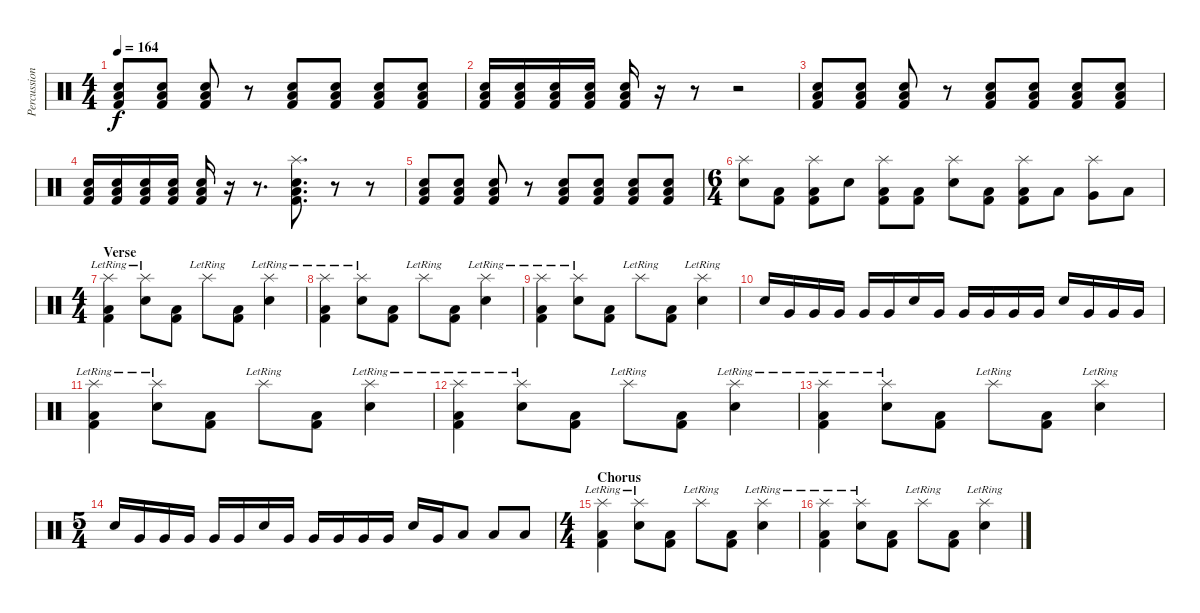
\track ("Percussion" "Percussion") {instrument percussion}
\staff {score}
\articulation defaults
\ts (4 4)
\tempo 164
\clef neutral
\ks c
("Snare (hit) 2" "Low Floor Tom (hit)" "Kick (hit) 2").8{dy f} ("Snare (hit) 2" "Low Floor Tom (hit)" "Kick (hit) 2").8 ("Snare (hit) 2" "Low Floor Tom (hit)" "Kick (hit) 2").8 r.8 ("Snare (hit) 2" "Low Floor Tom (hit)" "Kick (hit) 2").8 ("Snare (hit) 2" "Low Floor Tom (hit)" "Kick (hit) 2").8 ("Snare (hit) 2" "Low Floor Tom (hit)" "Kick (hit) 2").8 ("Snare (hit) 2" "Low Floor Tom (hit)" "Kick (hit) 2").8 |
("Snare (hit) 2" "Low Floor Tom (hit)" "Kick (hit) 2").16 ("Snare (hit) 2" "Low Floor Tom (hit)" "Kick (hit) 2").16 ("Snare (hit) 2" "Low Floor Tom (hit)" "Kick (hit) 2").16 ("Snare (hit) 2" "Low Floor Tom (hit)" "Kick (hit) 2").16 ("Snare (hit) 2" "Low Floor Tom (hit)" "Kick (hit) 2").16 r.16 r.8 r.2 |
("Snare (hit) 2" "Low Floor Tom (hit)" "Kick (hit) 2").8 ("Snare (hit) 2" "Low Floor Tom (hit)" "Kick (hit) 2").8 ("Snare (hit) 2" "Low Floor Tom (hit)" "Kick (hit) 2").8 r.8 ("Snare (hit) 2" "Low Floor Tom (hit)" "Kick (hit) 2").8 ("Snare (hit) 2" "Low Floor Tom (hit)" "Kick (hit) 2").8 ("Snare (hit) 2" "Low Floor Tom (hit)" "Kick (hit) 2").8 ("Snare (hit) 2" "Low Floor Tom (hit)" "Kick (hit) 2").8 |
("Snare (hit) 2" "Low Floor Tom (hit)" "Kick (hit) 2").16 ("Snare (hit) 2" "Low Floor Tom (hit)" "Kick (hit) 2").16 ("Snare (hit) 2" "Low Floor Tom (hit)" "Kick (hit) 2").16 ("Snare (hit) 2" "Low Floor Tom (hit)" "Kick (hit) 2").16 ("Snare (hit) 2" "Low Floor Tom (hit)" "Kick (hit) 2").16 r.16 r.8{d} ("Splash (hit)" "Snare (hit) 2" "Low Floor Tom (hit)" "Kick (hit) 2").8{d} r.8 r.8 |
("Snare (hit) 2" "Low Floor Tom (hit)" "Kick (hit) 2").8 ("Snare (hit) 2" "Low Floor Tom (hit)" "Kick (hit) 2").8 ("Snare (hit) 2" "Low Floor Tom (hit)" "Kick (hit) 2").8 r.8 ("Snare (hit) 2" "Low Floor Tom (hit)" "Kick (hit) 2").8 ("Snare (hit) 2" "Low Floor Tom (hit)" "Kick (hit) 2").8 ("Snare (hit) 2" "Low Floor Tom (hit)" "Kick (hit) 2").8 ("Snare (hit) 2" "Low Floor Tom (hit)" "Kick (hit) 2").8 |
\ts (6 4)
("Splash (hit)" "Snare (hit) 2").8 ("Low Floor Tom (hit)" "Kick (hit) 2").8 ("Splash (hit)" "Low Floor Tom (hit)" "Kick (hit) 2").8 "Snare (hit) 2".8 ("Splash (hit)" "Low Floor Tom (hit)" "Kick (hit) 2").8 ("Low Floor Tom (hit)" "Kick (hit) 2").8 ("Splash (hit)" "Snare (hit) 2").8 ("Low Floor Tom (hit)" "Kick (hit) 2").8 ("Splash (hit)" "Low Floor Tom (hit)" "Kick (hit) 2").8 "Low Tom (hit)".8 ("Splash (hit)" "Very Low Tom (hit)").8 "Low Floor Tom (hit)".8 |
\ts (4 4)
\section ("" "Verse")
("Splash (hit)"{lr} "Low Floor Tom (hit)" "Kick (hit) 2").4 ("Splash (hit)"{lr} "Snare (hit) 2").8 ("Low Floor Tom (hit)" "Kick (hit) 2").8 "Splash (hit)"{lr}.8 ("Low Floor Tom (hit)" "Kick (hit) 2").8 ("Splash (hit)"{lr} "Snare (hit) 2").4 |
("Splash (hit)"{lr} "Low Floor Tom (hit)" "Kick (hit) 2").4 ("Splash (hit)"{lr} "Snare (hit) 2").8 ("Low Floor Tom (hit)" "Kick (hit) 2").8 "Splash (hit)"{lr}.8 ("Low Floor Tom (hit)" "Kick (hit) 2").8 ("Splash (hit)"{lr} "Snare (hit) 2").4 |
("Splash (hit)"{lr} "Low Floor Tom (hit)" "Kick (hit) 2").4 ("Splash (hit)"{lr} "Snare (hit) 2").8 ("Low Floor Tom (hit)" "Kick (hit) 2").8 "Splash (hit)"{lr}.8 ("Low Floor Tom (hit)" "Kick (hit) 2").8 ("Splash (hit)"{lr} "Snare (hit) 2").4 |
"Snare (hit) 2".16 "Very Low Tom (hit)".16 "Very Low Tom (hit)".16 "Very Low Tom (hit)".16 "Very Low Tom (hit)".16 "Very Low Tom (hit)".16 "Snare (hit) 2".16 "Very Low Tom (hit)".16 "Very Low Tom (hit)".16 "Very Low Tom (hit)".16 "Very Low Tom (hit)".16 "Very Low Tom (hit)".16 "Snare (hit) 2".16 "Very Low Tom (hit)".16 "Very Low Tom (hit)".16 "Very Low Tom (hit)".16 |
("Splash (hit)"{lr} "Low Floor Tom (hit)" "Kick (hit) 2").4 ("Splash (hit)"{lr} "Snare (hit) 2").8 ("Low Floor Tom (hit)" "Kick (hit) 2").8 "Splash (hit)"{lr}.8 ("Low Floor Tom (hit)" "Kick (hit) 2").8 ("Splash (hit)"{lr} "Snare (hit) 2").4 |
("Splash (hit)"{lr} "Low Floor Tom (hit)" "Kick (hit) 2").4 ("Splash (hit)"{lr} "Snare (hit) 2").8 ("Low Floor Tom (hit)" "Kick (hit) 2").8 "Splash (hit)"{lr}.8 ("Low Floor Tom (hit)" "Kick (hit) 2").8 ("Splash (hit)"{lr} "Snare (hit) 2").4 |
("Splash (hit)"{lr} "Low Floor Tom (hit)" "Kick (hit) 2").4 ("Splash (hit)"{lr} "Snare (hit) 2").8 ("Low Floor Tom (hit)" "Kick (hit) 2").8 "Splash (hit)"{lr}.8 ("Low Floor Tom (hit)" "Kick (hit) 2").8 ("Splash (hit)"{lr} "Snare (hit) 2").4 |
\ts (5 4)
"Snare (hit) 2".16 "Very Low Tom (hit)".16 "Very Low Tom (hit)".16 "Very Low Tom (hit)".16 "Very Low Tom (hit)".16 "Very Low Tom (hit)".16 "Snare (hit) 2".16 "Very Low Tom (hit)".16 "Very Low Tom (hit)".16 "Very Low Tom (hit)".16 "Very Low Tom (hit)".16 "Very Low Tom (hit)".16 "Snare (hit) 2".16 "Very Low Tom (hit)".16 "Low Tom (hit)".8 "Low Tom (hit)".8 "Low Tom (hit)".8 |
\ts (4 4)
\section ("" "Chorus")
("Splash (hit)"{lr} "Low Floor Tom (hit)" "Kick (hit) 2").4 ("Splash (hit)"{lr} "Snare (hit) 2").8 ("Low Floor Tom (hit)" "Kick (hit) 2").8 "Splash (hit)"{lr}.8 ("Low Floor Tom (hit)" "Kick (hit) 2").8 ("Splash (hit)"{lr} "Snare (hit) 2").4 |
("Splash (hit)"{lr} "Low Floor Tom (hit)" "Kick (hit) 2").4 ("Splash (hit)"{lr} "Snare (hit) 2").8 ("Low Floor Tom (hit)" "Kick (hit) 2").8 "Splash (hit)"{lr}.8 ("Low Floor Tom (hit)" "Kick (hit) 2").8 ("Splash (hit)"{lr} "Snare (hit) 2").4
